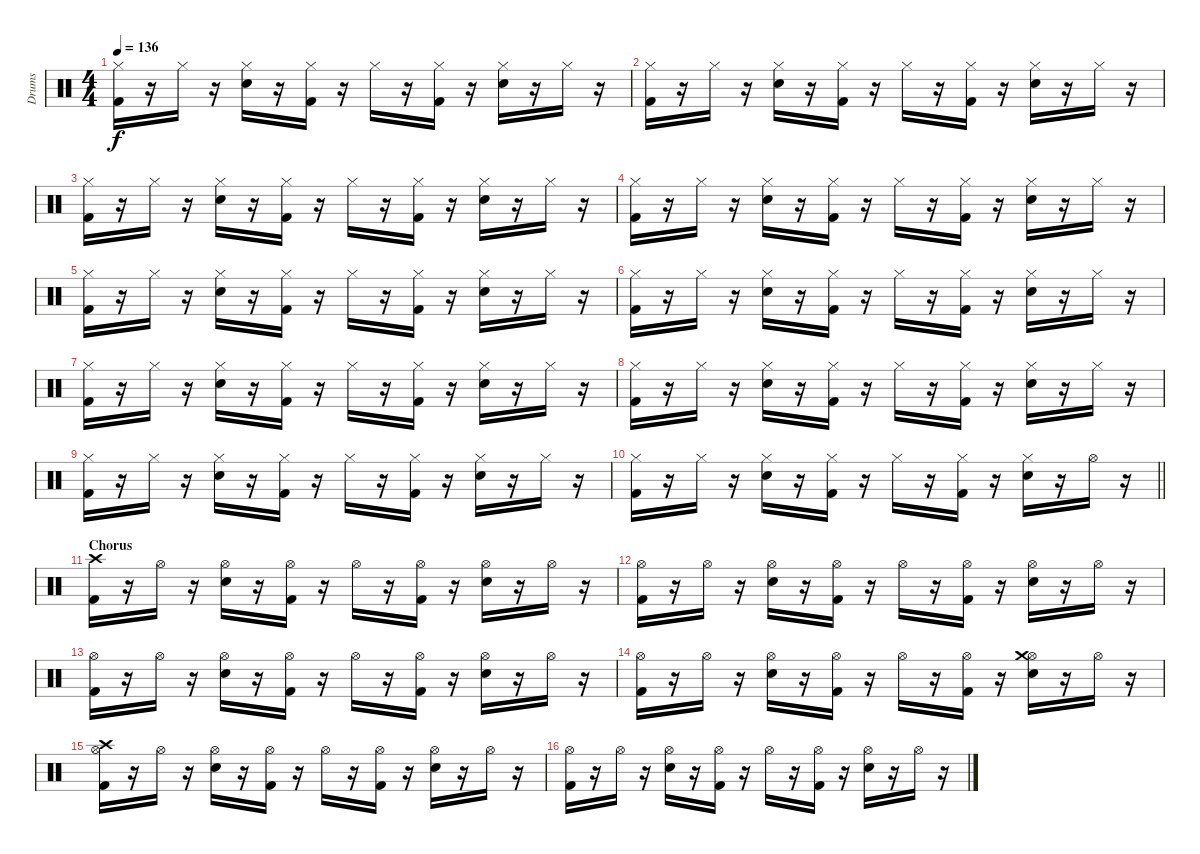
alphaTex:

\track ("Drums" "Drums") {instrument percussion}
\staff {score}
\articulation defaults
\ts (4 4)
\tempo 136
\clef neutral
\ks c
("Kick (hit) 2" "Hi-Hat (closed)").16{dy f} r.16 "Hi-Hat (closed)".16 r.16 ("Electric Snare (hit)" "Hi-Hat (closed)").16 r.16 ("Kick (hit) 2" "Hi-Hat (closed)").16 r.16 "Hi-Hat (closed)".16 r.16 ("Kick (hit) 2" "Hi-Hat (closed)").16 r.16 ("Electric Snare (hit)" "Hi-Hat (closed)").16 r.16 "Hi-Hat (closed)".16 r.16 |
("Kick (hit) 2" "Hi-Hat (closed)").16 r.16 "Hi-Hat (closed)".16 r.16 ("Electric Snare (hit)" "Hi-Hat (closed)").16 r.16 ("Kick (hit) 2" "Hi-Hat (closed)").16 r.16 "Hi-Hat (closed)".16 r.16 ("Kick (hit) 2" "Hi-Hat (closed)").16 r.16 ("Electric Snare (hit)" "Hi-Hat (closed)").16 r.16 "Hi-Hat (closed)".16 r.16 |
("Kick (hit) 2" "Hi-Hat (closed)").16 r.16 "Hi-Hat (closed)".16 r.16 ("Electric Snare (hit)" "Hi-Hat (closed)").16 r.16 ("Kick (hit) 2" "Hi-Hat (closed)").16 r.16 "Hi-Hat (closed)".16 r.16 ("Kick (hit) 2" "Hi-Hat (closed)").16 r.16 ("Electric Snare (hit)" "Hi-Hat (closed)").16 r.16 "Hi-Hat (closed)".16 r.16 |
("Kick (hit) 2" "Hi-Hat (closed)").16 r.16 "Hi-Hat (closed)".16 r.16 ("Electric Snare (hit)" "Hi-Hat (closed)").16 r.16 ("Kick (hit) 2" "Hi-Hat (closed)").16 r.16 "Hi-Hat (closed)".16 r.16 ("Kick (hit) 2" "Hi-Hat (closed)").16 r.16 ("Electric Snare (hit)" "Hi-Hat (closed)").16 r.16 "Hi-Hat (closed)".16 r.16 |
("Kick (hit) 2" "Hi-Hat (closed)").16 r.16 "Hi-Hat (closed)".16 r.16 ("Electric Snare (hit)" "Hi-Hat (closed)").16 r.16 ("Kick (hit) 2" "Hi-Hat (closed)").16 r.16 "Hi-Hat (closed)".16 r.16 ("Kick (hit) 2" "Hi-Hat (closed)").16 r.16 ("Electric Snare (hit)" "Hi-Hat (closed)").16 r.16 "Hi-Hat (closed)".16 r.16 |
("Kick (hit) 2" "Hi-Hat (closed)").16 r.16 "Hi-Hat (closed)".16 r.16 ("Electric Snare (hit)" "Hi-Hat (closed)").16 r.16 ("Kick (hit) 2" "Hi-Hat (closed)").16 r.16 "Hi-Hat (closed)".16 r.16 ("Kick (hit) 2" "Hi-Hat (closed)").16 r.16 ("Electric Snare (hit)" "Hi-Hat (closed)").16 r.16 "Hi-Hat (closed)".16 r.16 |
("Kick (hit) 2" "Hi-Hat (closed)").16 r.16 "Hi-Hat (closed)".16 r.16 ("Electric Snare (hit)" "Hi-Hat (closed)").16 r.16 ("Kick (hit) 2" "Hi-Hat (closed)").16 r.16 "Hi-Hat (closed)".16 r.16 ("Kick (hit) 2" "Hi-Hat (closed)").16 r.16 ("Electric Snare (hit)" "Hi-Hat (closed)").16 r.16 "Hi-Hat (closed)".16 r.16 |
("Kick (hit) 2" "Hi-Hat (closed)").16 r.16 "Hi-Hat (closed)".16 r.16 ("Electric Snare (hit)" "Hi-Hat (closed)").16 r.16 ("Kick (hit) 2" "Hi-Hat (closed)").16 r.16 "Hi-Hat (closed)".16 r.16 ("Kick (hit) 2" "Hi-Hat (closed)").16 r.16 ("Electric Snare (hit)" "Hi-Hat (closed)").16 r.16 "Hi-Hat (closed)".16 r.16 |
("Kick (hit) 2" "Hi-Hat (closed)").16 r.16 "Hi-Hat (closed)".16 r.16 ("Electric Snare (hit)" "Hi-Hat (closed)").16 r.16 ("Kick (hit) 2" "Hi-Hat (closed)").16 r.16 "Hi-Hat (closed)".16 r.16 ("Kick (hit) 2" "Hi-Hat (closed)").16 r.16 ("Electric Snare (hit)" "Hi-Hat (closed)").16 r.16 "Hi-Hat (closed)".16 r.16 |
\barLineRight lightlight
("Kick (hit) 2" "Hi-Hat (closed)").16 r.16 "Hi-Hat (closed)".16 r.16 ("Electric Snare (hit)" "Hi-Hat (closed)").16 r.16 ("Kick (hit) 2" "Hi-Hat (closed)").16 r.16 "Hi-Hat (closed)".16 r.16 ("Kick (hit) 2" "Hi-Hat (closed)").16 r.16 ("Electric Snare (hit)" "Hi-Hat (closed)").16 r.16 "Hi-Hat (open)".16 r.16 |
\section ("" "Chorus")
("Kick (hit) 2" "Crash high (hit)").16 r.16 "Hi-Hat (open)".16 r.16 ("Electric Snare (hit)" "Hi-Hat (open)").16 r.16 ("Kick (hit) 2" "Hi-Hat (open)").16 r.16 "Hi-Hat (open)".16 r.16 ("Kick (hit) 2" "Hi-Hat (open)").16 r.16 ("Electric Snare (hit)" "Hi-Hat (open)").16 r.16 "Hi-Hat (open)".16 r.16 |
("Kick (hit) 2" "Hi-Hat (open)").16 r.16 "Hi-Hat (open)".16 r.16 ("Electric Snare (hit)" "Hi-Hat (open)").16 r.16 ("Kick (hit) 2" "Hi-Hat (open)").16 r.16 "Hi-Hat (open)".16 r.16 ("Kick (hit) 2" "Hi-Hat (open)").16 r.16 ("Electric Snare (hit)" "Hi-Hat (open)").16 r.16 "Hi-Hat (open)".16 r.16 |
("Kick (hit) 2" "Hi-Hat (open)").16 r.16 "Hi-Hat (open)".16 r.16 ("Electric Snare (hit)" "Hi-Hat (open)").16 r.16 ("Kick (hit) 2" "Hi-Hat (open)").16 r.16 "Hi-Hat (open)".16 r.16 ("Kick (hit) 2" "Hi-Hat (open)").16 r.16 ("Electric Snare (hit)" "Hi-Hat (open)").16 r.16 "Hi-Hat (open)".16 r.16 |
("Kick (hit) 2" "Hi-Hat (open)").16 r.16 "Hi-Hat (open)".16 r.16 ("Electric Snare (hit)" "Hi-Hat (open)").16 r.16 ("Kick (hit) 2" "Hi-Hat (open)").16 r.16 "Hi-Hat (open)".16 r.16 ("Kick (hit) 2" "Hi-Hat (open)").16 r.16 ("Electric Snare (hit)" "Hi-Hat (open)" "Crash medium (hit)").16 r.16 "Hi-Hat (open)".16 r.16 |
("Kick (hit) 2" "Hi-Hat (open)" "Crash high (hit)").16 r.16 "Hi-Hat (open)".16 r.16 ("Electric Snare (hit)" "Hi-Hat (open)").16 r.16 ("Kick (hit) 2" "Hi-Hat (open)").16 r.16 "Hi-Hat (open)".16 r.16 ("Kick (hit) 2" "Hi-Hat (open)").16 r.16 ("Electric Snare (hit)" "Hi-Hat (open)").16 r.16 "Hi-Hat (open)".16 r.16 |
("Kick (hit) 2" "Hi-Hat (open)").16 r.16 "Hi-Hat (open)".16 r.16 ("Electric Snare (hit)" "Hi-Hat (open)").16 r.16 ("Kick (hit) 2" "Hi-Hat (open)").16 r.16 "Hi-Hat (open)".16 r.16 ("Kick (hit) 2" "Hi-Hat (open)").16 r.16 ("Electric Snare (hit)" "Hi-Hat (open)").16 r.16 "Hi-Hat (open)".16 r.16
